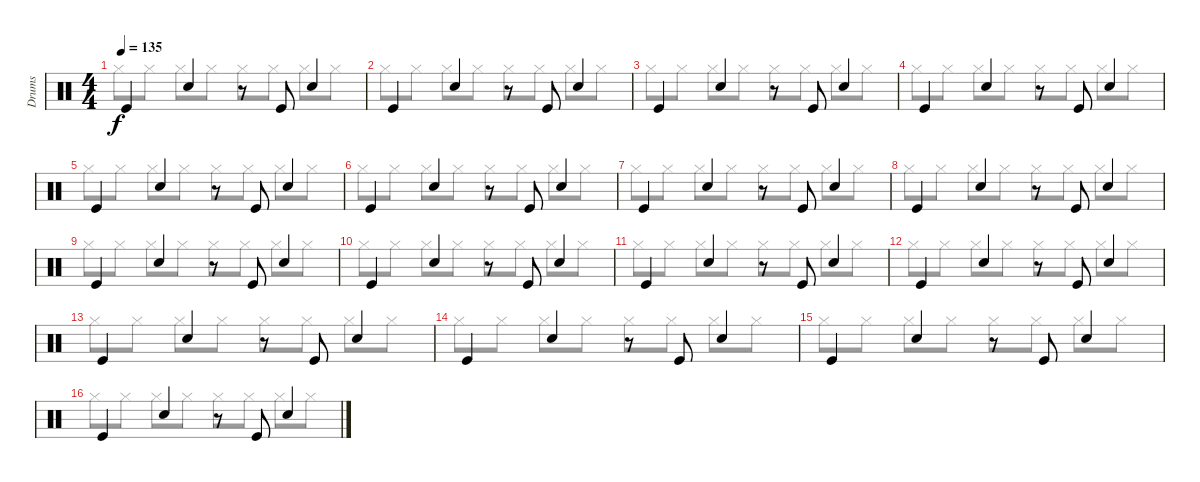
\track ("Drums" "Drums") {instrument percussion}
\staff {score}
\articulation defaults
\voice
\ts (4 4)
\tempo 135
\clef neutral
\ks c "Kick (hit)".4{dy f} "Snare (hit) 2".4
r.8 "Kick (hit)".8 "Snare (hit) 2".4 |
"Kick (hit)".4 "Snare (hit) 2".4 r.8 "Kick (hit)".8 "Snare (hit) 2".4 |
"Kick (hit)".4 "Snare (hit) 2".4 r.8 "Kick (hit)".8 "Snare (hit) 2".4 |
"Kick (hit)".4 "Snare (hit) 2".4 r.8 "Kick (hit)".8 "Snare (hit) 2".4 |
"Kick (hit)".4 "Snare (hit) 2".4 r.8 "Kick (hit)".8 "Snare (hit) 2".4 |
"Kick (hit)".4 "Snare (hit) 2".4 r.8 "Kick (hit)".8 "Snare (hit) 2".4 |
"Kick (hit)".4 "Snare (hit) 2".4 r.8 "Kick (hit)".8 "Snare (hit) 2".4 |
"Kick (hit)".4 "Snare (hit) 2".4 r.8 "Kick (hit)".8 "Snare (hit) 2".4 |
"Kick (hit)".4 "Snare (hit) 2".4 r.8 "Kick (hit)".8 "Snare (hit) 2".4 |
"Kick (hit)".4 "Snare (hit) 2".4 r.8 "Kick (hit)".8 "Snare (hit) 2".4 |
"Kick (hit)".4 "Snare (hit) 2".4 r.8 "Kick (hit)".8 "Snare (hit) 2".4 |
"Kick (hit)".4 "Snare (hit) 2".4 r.8 "Kick (hit)".8 "Snare (hit) 2".4 |
"Kick (hit)".4 "Snare (hit) 2".4 r.8 "Kick (hit)".8 "Snare (hit) 2".4 |
"Kick (hit)".4 "Snare (hit) 2".4 r.8 "Kick (hit)".8 "Snare (hit) 2".4 |
"Kick (hit)".4 "Snare (hit) 2".4 r.8 "Kick (hit)".8 "Snare (hit) 2".4 |
"Kick (hit)".4 "Snare (hit) 2".4 r.8 "Kick (hit)".8 "Snare (hit) 2".4
\voice
\clef neutral
\ottava regular
\simile none
\ks c "Hi-Hat (closed)".8{dy f} "Hi-Hat (closed)".8 "Hi-Hat (closed)".8 "Hi-Hat (closed)".8 "Hi-Hat (closed)".8 "Hi-Hat (closed)".8 "Hi-Hat (closed)".8 "Hi-Hat (closed)".8
|
"Hi-Hat (closed)".8 "Hi-Hat (closed)".8 "Hi-Hat (closed)".8 "Hi-Hat (closed)".8 "Hi-Hat (closed)".8 "Hi-Hat (closed)".8 "Hi-Hat (closed)".8 "Hi-Hat (closed)".8 |
"Hi-Hat (closed)".8 "Hi-Hat (closed)".8 "Hi-Hat (closed)".8 "Hi-Hat (closed)".8 "Hi-Hat (closed)".8 "Hi-Hat (closed)".8 "Hi-Hat (closed)".8 "Hi-Hat (closed)".8 |
"Hi-Hat (closed)".8 "Hi-Hat (closed)".8 "Hi-Hat (closed)".8 "Hi-Hat (closed)".8 "Hi-Hat (closed)".8 "Hi-Hat (closed)".8 "Hi-Hat (closed)".8 "Hi-Hat (closed)".8 |
"Hi-Hat (closed)".8 "Hi-Hat (closed)".8 "Hi-Hat (closed)".8 "Hi-Hat (closed)".8 "Hi-Hat (closed)".8 "Hi-Hat (closed)".8 "Hi-Hat (closed)".8 "Hi-Hat (closed)".8 |
"Hi-Hat (closed)".8 "Hi-Hat (closed)".8 "Hi-Hat (closed)".8 "Hi-Hat (closed)".8 "Hi-Hat (closed)".8 "Hi-Hat (closed)".8 "Hi-Hat (closed)".8 "Hi-Hat (closed)".8 |
"Hi-Hat (closed)".8 "Hi-Hat (closed)".8 "Hi-Hat (closed)".8 "Hi-Hat (closed)".8 "Hi-Hat (closed)".8 "Hi-Hat (closed)".8 "Hi-Hat (closed)".8 "Hi-Hat (closed)".8 |
"Hi-Hat (closed)".8 "Hi-Hat (closed)".8 "Hi-Hat (closed)".8 "Hi-Hat (closed)".8 "Hi-Hat (closed)".8 "Hi-Hat (closed)".8 "Hi-Hat (closed)".8 "Hi-Hat (closed)".8 |
"Hi-Hat (closed)".8 "Hi-Hat (closed)".8 "Hi-Hat (closed)".8 "Hi-Hat (closed)".8 "Hi-Hat (closed)".8 "Hi-Hat (closed)".8 "Hi-Hat (closed)".8 "Hi-Hat (closed)".8 |
"Hi-Hat (closed)".8 "Hi-Hat (closed)".8 "Hi-Hat (closed)".8 "Hi-Hat (closed)".8 "Hi-Hat (closed)".8 "Hi-Hat (closed)".8 "Hi-Hat (closed)".8 "Hi-Hat (closed)".8 |
"Hi-Hat (closed)".8 "Hi-Hat (closed)".8 "Hi-Hat (closed)".8 "Hi-Hat (closed)".8 "Hi-Hat (closed)".8 "Hi-Hat (closed)".8 "Hi-Hat (closed)".8 "Hi-Hat (closed)".8 |
"Hi-Hat (closed)".8 "Hi-Hat (closed)".8 "Hi-Hat (closed)".8 "Hi-Hat (closed)".8 "Hi-Hat (closed)".8 "Hi-Hat (closed)".8 "Hi-Hat (closed)".8 "Hi-Hat (closed)".8 |
"Hi-Hat (closed)".8 "Hi-Hat (closed)".8 "Hi-Hat (closed)".8 "Hi-Hat (closed)".8 "Hi-Hat (closed)".8 "Hi-Hat (closed)".8 "Hi-Hat (closed)".8 "Hi-Hat (closed)".8 |
"Hi-Hat (closed)".8 "Hi-Hat (closed)".8 "Hi-Hat (closed)".8 "Hi-Hat (closed)".8 "Hi-Hat (closed)".8 "Hi-Hat (closed)".8 "Hi-Hat (closed)".8 "Hi-Hat (closed)".8 |
"Hi-Hat (closed)".8 "Hi-Hat (closed)".8 "Hi-Hat (closed)".8 "Hi-Hat (closed)".8 "Hi-Hat (closed)".8 "Hi-Hat (closed)".8 "Hi-Hat (closed)".8 "Hi-Hat (closed)".8 |
"Hi-Hat (closed)".8 "Hi-Hat (closed)".8 "Hi-Hat (closed)".8 "Hi-Hat (closed)".8 "Hi-Hat (closed)".8 "Hi-Hat (closed)".8 "Hi-Hat (closed)".8 "Hi-Hat (closed)".8
